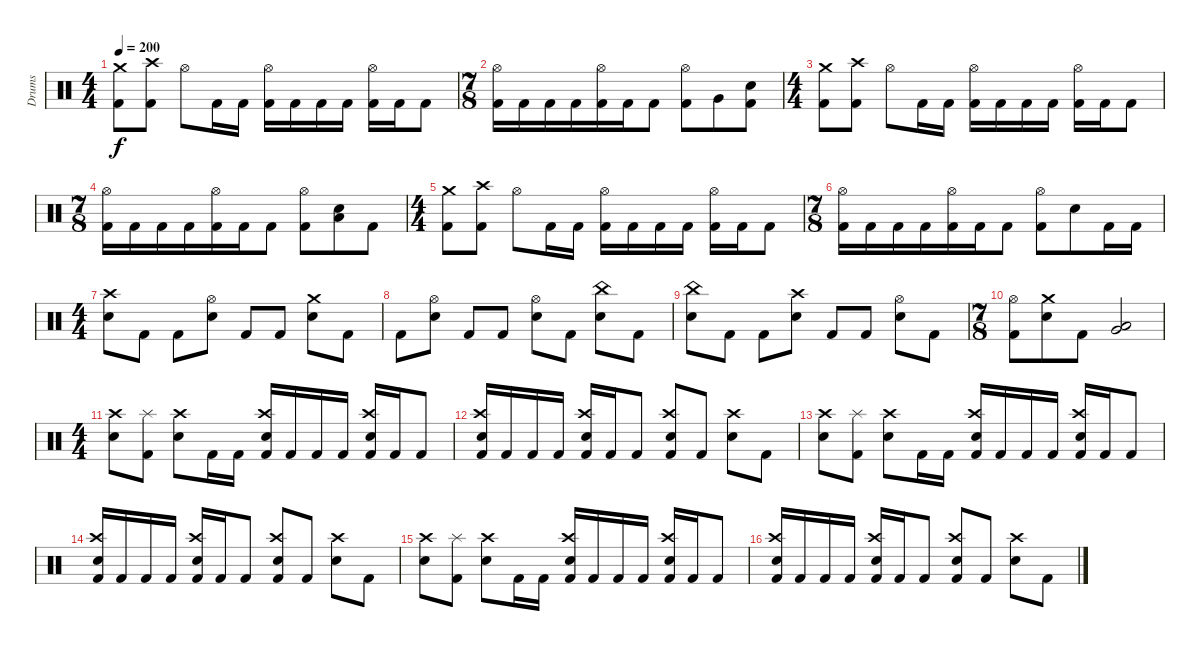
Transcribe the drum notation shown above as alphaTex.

\track ("Drums" "Drums") {instrument percussion}
\staff {score}
\articulation defaults
\ts (4 4)
\tempo 200
\clef neutral
\ks c
("Crash medium (hit)" "Kick (hit) 2").8{dy f} ("Crash high (hit)" "Kick (hit) 2").8 "Hi-Hat (open)".8 "Kick (hit) 2".16 "Kick (hit) 2".16 ("Hi-Hat (open)" "Kick (hit) 2").16 "Kick (hit) 2".16 "Kick (hit) 2".16 "Kick (hit) 2".16 ("Hi-Hat (open)" "Kick (hit) 2").16 "Kick (hit) 2".16 "Kick (hit) 2".8 |
\ts (7 8)
("Hi-Hat (open)" "Kick (hit) 2").16 "Kick (hit) 2".16 "Kick (hit) 2".16 "Kick (hit) 2".16 ("Hi-Hat (open)" "Kick (hit) 2").16 "Kick (hit) 2".16 "Kick (hit) 2".8 ("Hi-Hat (open)" "Kick (hit) 2").8 "Very Low Tom (hit)".8 ("Electric Snare (hit)" "Kick (hit) 2").8 |
\ts (4 4)
("Crash medium (hit)" "Kick (hit) 2").8 ("Crash high (hit)" "Kick (hit) 2").8 "Hi-Hat (open)".8 "Kick (hit) 2".16 "Kick (hit) 2".16 ("Hi-Hat (open)" "Kick (hit) 2").16 "Kick (hit) 2".16 "Kick (hit) 2".16 "Kick (hit) 2".16 ("Hi-Hat (open)" "Kick (hit) 2").16 "Kick (hit) 2".16 "Kick (hit) 2".8 |
\ts (7 8)
("Hi-Hat (open)" "Kick (hit) 2").16 "Kick (hit) 2".16 "Kick (hit) 2".16 "Kick (hit) 2".16 ("Hi-Hat (open)" "Kick (hit) 2").16 "Kick (hit) 2".16 "Kick (hit) 2".8 ("Hi-Hat (open)" "Kick (hit) 2").8 ("Low Floor Tom (hit)" "Electric Snare (hit)").8 "Kick (hit) 2".8 |
\ts (4 4)
("Crash medium (hit)" "Kick (hit) 2").8 ("Crash high (hit)" "Kick (hit) 2").8 "Hi-Hat (open)".8 "Kick (hit) 2".16 "Kick (hit) 2".16 ("Hi-Hat (open)" "Kick (hit) 2").16 "Kick (hit) 2".16 "Kick (hit) 2".16 "Kick (hit) 2".16 ("Hi-Hat (open)" "Kick (hit) 2").16 "Kick (hit) 2".16 "Kick (hit) 2".8 |
\ts (7 8)
("Hi-Hat (open)" "Kick (hit) 2").16 "Kick (hit) 2".16 "Kick (hit) 2".16 "Kick (hit) 2".16 ("Hi-Hat (open)" "Kick (hit) 2").16 "Kick (hit) 2".16 "Kick (hit) 2".8 ("Hi-Hat (open)" "Kick (hit) 2").8 "Electric Snare (hit)".8 "Kick (hit) 2".16 "Kick (hit) 2".16 |
\ts (4 4)
("Crash high (hit)" "Electric Snare (hit)").8 "Kick (hit) 2".8 "Kick (hit) 2".8 ("Hi-Hat (open)" "Electric Snare (hit)").8 "Kick (hit) 2".8 "Kick (hit) 2".8 ("Crash medium (hit)" "Electric Snare (hit)").8 "Kick (hit) 2".8 |
"Kick (hit) 2".8 ("Hi-Hat (open)" "Electric Snare (hit)").8 "Kick (hit) 2".8 "Kick (hit) 2".8 ("Hi-Hat (open)" "Electric Snare (hit)").8 "Kick (hit) 2".8 ("China (hit)" "Electric Snare (hit)").8 "Kick (hit) 2".8 |
("China (hit)" "Electric Snare (hit)").8 "Kick (hit) 2".8 "Kick (hit) 2".8 ("Crash high (hit)" "Electric Snare (hit)").8 "Kick (hit) 2".8 "Kick (hit) 2".8 ("Hi-Hat (open)" "Electric Snare (hit)").8 "Kick (hit) 2".8 |
\ts (7 8)
("Hi-Hat (open)" "Kick (hit) 2").8 ("Crash medium (hit)" "Electric Snare (hit)").8 "Kick (hit) 2".8 ("Very Low Tom (hit)" "Low Floor Tom (hit)").2 |
\ts (4 4)
("Crash high (hit)" "Electric Snare (hit)").8 ("Splash (hit)" "Kick (hit) 2").8 ("Crash high (hit)" "Electric Snare (hit)").8 "Kick (hit) 2".16 "Kick (hit) 2".16 ("Crash high (hit)" "Electric Snare (hit)" "Kick (hit) 2").16 "Kick (hit) 2".16 "Kick (hit) 2".16 "Kick (hit) 2".16 ("Crash high (hit)" "Electric Snare (hit)" "Kick (hit) 2").16 "Kick (hit) 2".16 "Kick (hit) 2".8 |
("Crash high (hit)" "Electric Snare (hit)" "Kick (hit) 2").16 "Kick (hit) 2".16 "Kick (hit) 2".16 "Kick (hit) 2".16 ("Crash high (hit)" "Electric Snare (hit)" "Kick (hit) 2").16 "Kick (hit) 2".16 "Kick (hit) 2".8 ("Crash high (hit)" "Electric Snare (hit)" "Kick (hit) 2").8 "Kick (hit) 2".8 ("Crash high (hit)" "Electric Snare (hit)").8 "Kick (hit) 2".8 |
("Crash high (hit)" "Electric Snare (hit)").8 ("Splash (hit)" "Kick (hit) 2").8 ("Crash high (hit)" "Electric Snare (hit)").8 "Kick (hit) 2".16 "Kick (hit) 2".16 ("Crash high (hit)" "Electric Snare (hit)" "Kick (hit) 2").16 "Kick (hit) 2".16 "Kick (hit) 2".16 "Kick (hit) 2".16 ("Crash high (hit)" "Electric Snare (hit)" "Kick (hit) 2").16 "Kick (hit) 2".16 "Kick (hit) 2".8 |
("Crash high (hit)" "Electric Snare (hit)" "Kick (hit) 2").16 "Kick (hit) 2".16 "Kick (hit) 2".16 "Kick (hit) 2".16 ("Crash high (hit)" "Electric Snare (hit)" "Kick (hit) 2").16 "Kick (hit) 2".16 "Kick (hit) 2".8 ("Crash high (hit)" "Electric Snare (hit)" "Kick (hit) 2").8 "Kick (hit) 2".8 ("Crash high (hit)" "Electric Snare (hit)").8 "Kick (hit) 2".8 |
("Crash high (hit)" "Electric Snare (hit)").8 ("Splash (hit)" "Kick (hit) 2").8 ("Crash high (hit)" "Electric Snare (hit)").8 "Kick (hit) 2".16 "Kick (hit) 2".16 ("Crash high (hit)" "Electric Snare (hit)" "Kick (hit) 2").16 "Kick (hit) 2".16 "Kick (hit) 2".16 "Kick (hit) 2".16 ("Crash high (hit)" "Electric Snare (hit)" "Kick (hit) 2").16 "Kick (hit) 2".16 "Kick (hit) 2".8 |
("Crash high (hit)" "Electric Snare (hit)" "Kick (hit) 2").16 "Kick (hit) 2".16 "Kick (hit) 2".16 "Kick (hit) 2".16 ("Crash high (hit)" "Electric Snare (hit)" "Kick (hit) 2").16 "Kick (hit) 2".16 "Kick (hit) 2".8 ("Crash high (hit)" "Electric Snare (hit)" "Kick (hit) 2").8 "Kick (hit) 2".8 ("Crash high (hit)" "Electric Snare (hit)").8 "Kick (hit) 2".8
